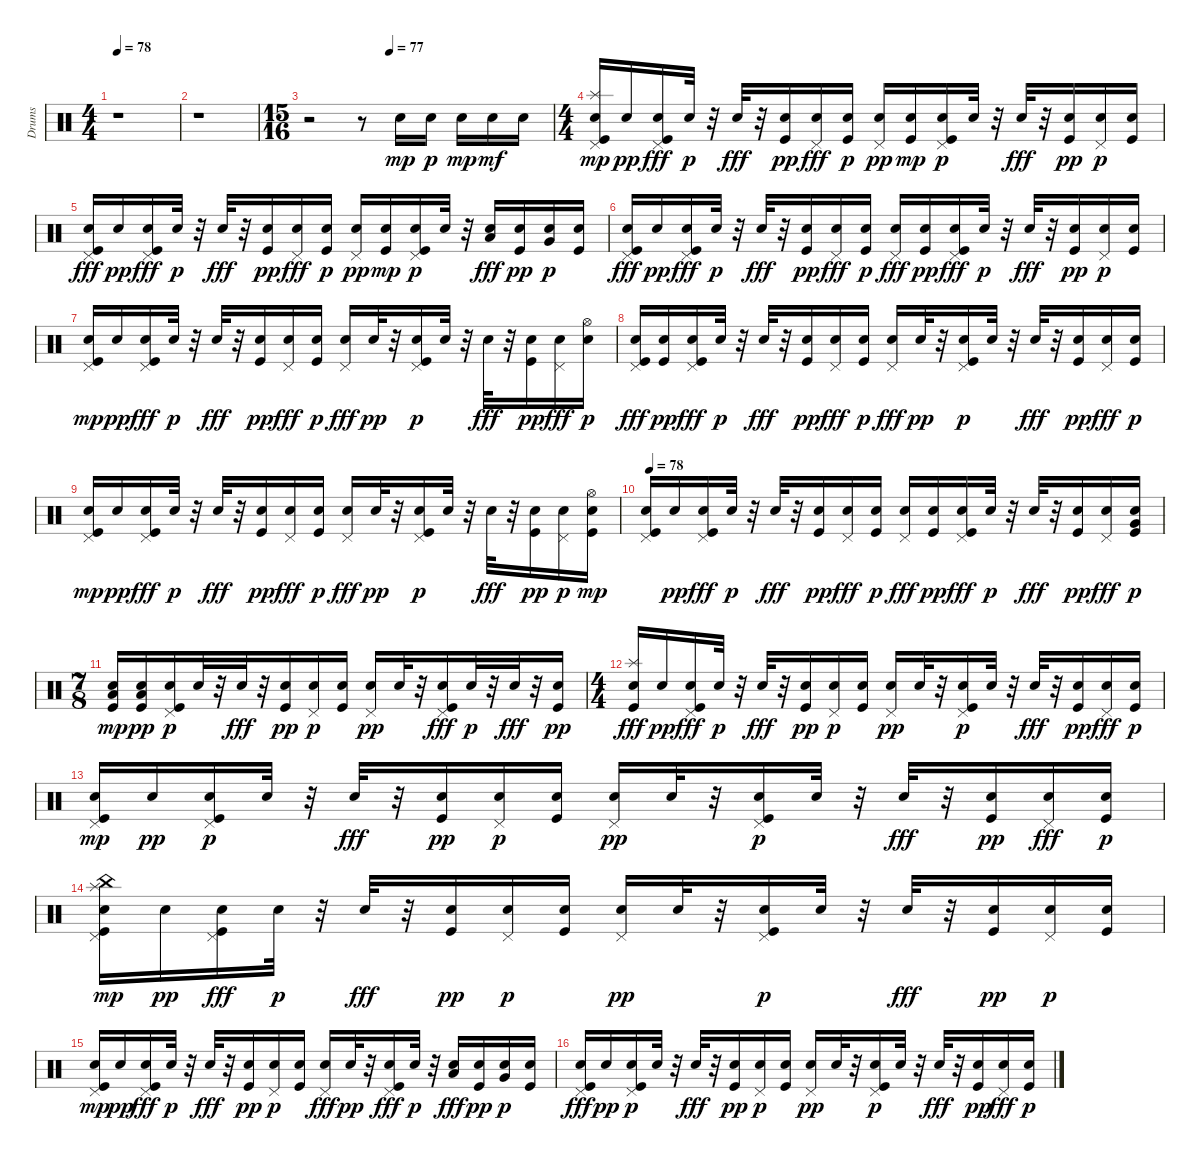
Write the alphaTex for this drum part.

\track ("Drums" "Drums") {instrument percussion}
\staff {score}
\articulation defaults
\ts (4 4)
\tempo 78
\clef neutral
\ks c
r.1{dy mp} |
r.1 |
\ts (15 16)
\tempo (77 0.3333333333333333)
r.2 r.8 "Snare (hit) 2".16 "Snare (hit) 2".16{dy p} "Snare (hit) 2".16{dy mp} "Snare (hit) 2".16{dy mf} "Snare (hit) 2".16 |
\ts (4 4)
("Splash (hit)" "Pedal Hi-Hat (hit)" "Kick (hit)" "Snare (hit) 2").16{dy mp} "Snare (hit) 2".16{dy pp} ("Snare (hit) 2" "Pedal Hi-Hat (hit)" "Kick (hit)").16{dy fff} "Snare (hit) 2".32{dy p} r.32 "Snare (hit) 2".32{dy fff} r.32 ("Snare (hit) 2" "Kick (hit)").16{dy pp} ("Snare (hit) 2" "Pedal Hi-Hat (hit)").16{dy fff} ("Kick (hit)" "Snare (hit) 2").16{dy p} ("Pedal Hi-Hat (hit)" "Snare (hit) 2").16{dy pp} ("Snare (hit) 2" "Kick (hit)").16{dy mp} ("Pedal Hi-Hat (hit)" "Snare (hit) 2" "Kick (hit)").16{dy p} "Snare (hit) 2".32 r.32 "Snare (hit) 2".32{dy fff} r.32 ("Snare (hit) 2" "Kick (hit)").16{dy pp} ("Pedal Hi-Hat (hit)" "Snare (hit) 2").16{dy p} ("Kick (hit)" "Snare (hit) 2").16 |
("Snare (hit) 2" "Pedal Hi-Hat (hit)" "Kick (hit)").16{dy fff} "Snare (hit) 2".16{dy pp} ("Snare (hit) 2" "Pedal Hi-Hat (hit)" "Kick (hit)").16{dy fff} "Snare (hit) 2".32{dy p} r.32 "Snare (hit) 2".32{dy fff} r.32 ("Kick (hit)" "Snare (hit) 2").16{dy pp} ("Snare (hit) 2" "Pedal Hi-Hat (hit)").16{dy fff} ("Snare (hit) 2" "Kick (hit)").16{dy p} ("Pedal Hi-Hat (hit)" "Snare (hit) 2").16{dy pp} ("Snare (hit) 2" "Kick (hit)").16{dy mp} ("Pedal Hi-Hat (hit)" "Snare (hit) 2" "Kick (hit)").16{dy p} "Snare (hit) 2".32 r.32 ("Low Tom (hit)" "Snare (hit) 2").16{dy fff} ("Snare (hit) 2" "Kick (hit)").16{dy pp} ("Very Low Tom (hit)" "Snare (hit) 2").16{dy p} ("Kick (hit)" "Snare (hit) 2").16 |
("Snare (hit) 2" "Kick (hit)" "Pedal Hi-Hat (hit)").16{dy fff} "Snare (hit) 2".16{dy pp} ("Snare (hit) 2" "Pedal Hi-Hat (hit)" "Kick (hit)").16{dy fff} "Snare (hit) 2".32{dy p} r.32 "Snare (hit) 2".32{dy fff} r.32 ("Kick (hit)" "Snare (hit) 2").16{dy pp} ("Snare (hit) 2" "Pedal Hi-Hat (hit)").16{dy fff} ("Kick (hit)" "Snare (hit) 2").16{dy p} ("Snare (hit) 2" "Pedal Hi-Hat (hit)").16{dy fff} ("Kick (hit)" "Snare (hit) 2").16{dy pp} ("Kick (hit)" "Snare (hit) 2" "Pedal Hi-Hat (hit)").16{dy fff} "Snare (hit) 2".32{dy p} r.32 "Snare (hit) 2".32{dy fff} r.32 ("Kick (hit)" "Snare (hit) 2").16{dy pp} ("Pedal Hi-Hat (hit)" "Snare (hit) 2").16{dy p} ("Snare (hit) 2" "Kick (hit)").16 |
("Kick (hit)" "Pedal Hi-Hat (hit)" "Snare (hit) 2").16{dy mp} "Snare (hit) 2".16{dy pp} ("Kick (hit)" "Snare (hit) 2" "Pedal Hi-Hat (hit)").16{dy fff} "Snare (hit) 2".32{dy p} r.32 "Snare (hit) 2".32{dy fff} r.32 ("Snare (hit) 2" "Kick (hit)").16{dy pp} ("Snare (hit) 2" "Pedal Hi-Hat (hit)").16{dy fff} ("Snare (hit) 2" "Kick (hit)").16{dy p} ("Snare (hit) 2" "Pedal Hi-Hat (hit)").16{dy fff} "Snare (hit) 2".32{dy pp} r.32 ("Pedal Hi-Hat (hit)" "Snare (hit) 2" "Kick (hit)").16{dy p} "Snare (hit) 2".32 r.32 "Snare (hit) 2".32{dy fff} r.32 ("Snare (hit) 2" "Kick (hit)").16{dy pp} ("Snare (hit) 2" "Pedal Hi-Hat (hit)").16{dy fff} ("Hi-Hat (open)" "Snare (hit) 2").16{dy p} |
("Snare (hit) 2" "Pedal Hi-Hat (hit)" "Kick (hit)").16{dy fff} ("Snare (hit) 2" "Kick (hit)").16{dy pp} ("Snare (hit) 2" "Pedal Hi-Hat (hit)" "Kick (hit)").16{dy fff} "Snare (hit) 2".32{dy p} r.32 "Snare (hit) 2".32{dy fff} r.32 ("Kick (hit)" "Snare (hit) 2").16{dy pp} ("Snare (hit) 2" "Pedal Hi-Hat (hit)").16{dy fff} ("Snare (hit) 2" "Kick (hit)").16{dy p} ("Snare (hit) 2" "Pedal Hi-Hat (hit)").16{dy fff} "Snare (hit) 2".32{dy pp} r.32 ("Kick (hit)" "Pedal Hi-Hat (hit)" "Snare (hit) 2").16{dy p} "Snare (hit) 2".32 r.32 "Snare (hit) 2".32{dy fff} r.32 ("Kick (hit)" "Snare (hit) 2").16{dy pp} ("Snare (hit) 2" "Pedal Hi-Hat (hit)").16{dy fff} ("Snare (hit) 2" "Kick (hit)").16{dy p} |
("Kick (hit)" "Pedal Hi-Hat (hit)" "Snare (hit) 2").16{dy mp} "Snare (hit) 2".16{dy pp} ("Kick (hit)" "Snare (hit) 2" "Pedal Hi-Hat (hit)").16{dy fff} "Snare (hit) 2".32{dy p} r.32 "Snare (hit) 2".32{dy fff} r.32 ("Kick (hit)" "Snare (hit) 2").16{dy pp} ("Snare (hit) 2" "Pedal Hi-Hat (hit)").16{dy fff} ("Snare (hit) 2" "Kick (hit)").16{dy p} ("Snare (hit) 2" "Pedal Hi-Hat (hit)").16{dy fff} "Snare (hit) 2".32{dy pp} r.32 ("Pedal Hi-Hat (hit)" "Kick (hit)" "Snare (hit) 2").16{dy p} "Snare (hit) 2".32 r.32 "Snare (hit) 2".32{dy fff} r.32 ("Snare (hit) 2" "Kick (hit)").16{dy pp} ("Pedal Hi-Hat (hit)" "Snare (hit) 2").16{dy p} ("Snare (hit) 2" "Kick (hit)" "Hi-Hat (open)").16{dy mp} |
\tempo 78
("Kick (hit)" "Pedal Hi-Hat (hit)" "Snare (hit) 2").16 "Snare (hit) 2".16{dy pp} ("Snare (hit) 2" "Pedal Hi-Hat (hit)" "Kick (hit)").16{dy fff} "Snare (hit) 2".32{dy p} r.32 "Snare (hit) 2".32{dy fff} r.32 ("Kick (hit)" "Snare (hit) 2").16{dy pp} ("Snare (hit) 2" "Pedal Hi-Hat (hit)").16{dy fff} ("Kick (hit)" "Snare (hit) 2").16{dy p} ("Snare (hit) 2" "Pedal Hi-Hat (hit)").16{dy fff} ("Kick (hit)" "Snare (hit) 2").16{dy pp} ("Snare (hit) 2" "Kick (hit)" "Pedal Hi-Hat (hit)").16{dy fff} "Snare (hit) 2".32{dy p} r.32 "Snare (hit) 2".32{dy fff} r.32 ("Kick (hit)" "Snare (hit) 2").16{dy pp} ("Snare (hit) 2" "Pedal Hi-Hat (hit)").16{dy fff} ("Very Low Tom (hit)" "Kick (hit)" "Snare (hit) 2").16{dy p} |
\ts (7 8)
("Low Floor Tom (hit)" "Kick (hit)" "Snare (hit) 2").16{dy mp} ("Kick (hit)" "Low Floor Tom (hit)" "Snare (hit) 2").16{dy pp} ("Kick (hit)" "Pedal Hi-Hat (hit)" "Snare (hit) 2").16{dy p} "Snare (hit) 2".32 r.32 "Snare (hit) 2".32{dy fff} r.32 ("Snare (hit) 2" "Kick (hit)").16{dy pp} ("Pedal Hi-Hat (hit)" "Snare (hit) 2").16{dy p} ("Snare (hit) 2" "Kick (hit)").16 ("Pedal Hi-Hat (hit)" "Snare (hit) 2").16{dy pp} "Snare (hit) 2".32 r.32 ("Snare (hit) 2" "Kick (hit)" "Pedal Hi-Hat (hit)").16{dy fff} "Snare (hit) 2".32{dy p} r.32 "Snare (hit) 2".32{dy fff} r.32 ("Kick (hit)" "Snare (hit) 2").16{dy pp} |
\ts (4 4)
("Snare (hit) 2" "Splash (hit)" "Kick (hit)").16{dy fff} "Snare (hit) 2".16{dy pp} ("Snare (hit) 2" "Kick (hit)" "Pedal Hi-Hat (hit)").16{dy fff} "Snare (hit) 2".32{dy p} r.32 "Snare (hit) 2".32{dy fff} r.32 ("Snare (hit) 2" "Kick (hit)").16{dy pp} ("Pedal Hi-Hat (hit)" "Snare (hit) 2").16{dy p} ("Snare (hit) 2" "Kick (hit)").16 ("Pedal Hi-Hat (hit)" "Snare (hit) 2").16{dy pp} "Snare (hit) 2".32 r.32 ("Kick (hit)" "Pedal Hi-Hat (hit)" "Snare (hit) 2").16{dy p} "Snare (hit) 2".32 r.32 "Snare (hit) 2".32{dy fff} r.32 ("Kick (hit)" "Snare (hit) 2").16{dy pp} ("Snare (hit) 2" "Pedal Hi-Hat (hit)").16{dy fff} ("Kick (hit)" "Snare (hit) 2").16{dy p} |
("Kick (hit)" "Pedal Hi-Hat (hit)" "Snare (hit) 2").16{dy mp} "Snare (hit) 2".16{dy pp} ("Pedal Hi-Hat (hit)" "Kick (hit)" "Snare (hit) 2").16{dy p} "Snare (hit) 2".32 r.32 "Snare (hit) 2".32{dy fff} r.32 ("Snare (hit) 2" "Kick (hit)").16{dy pp} ("Pedal Hi-Hat (hit)" "Snare (hit) 2").16{dy p} ("Snare (hit) 2" "Kick (hit)").16 ("Pedal Hi-Hat (hit)" "Snare (hit) 2").16{dy pp} "Snare (hit) 2".32 r.32 ("Pedal Hi-Hat (hit)" "Kick (hit)" "Snare (hit) 2").16{dy p} "Snare (hit) 2".32 r.32 "Snare (hit) 2".32{dy fff} r.32 ("Snare (hit) 2" "Kick (hit)").16{dy pp} ("Snare (hit) 2" "Pedal Hi-Hat (hit)").16{dy fff} ("Kick (hit)" "Snare (hit) 2").16{dy p} |
("Splash (hit)" "China (hit)" "Kick (hit)" "Pedal Hi-Hat (hit)" "Snare (hit) 2").16{dy mp} "Snare (hit) 2".16{dy pp} ("Snare (hit) 2" "Kick (hit)" "Pedal Hi-Hat (hit)").16{dy fff} "Snare (hit) 2".32{dy p} r.32 "Snare (hit) 2".32{dy fff} r.32 ("Kick (hit)" "Snare (hit) 2").16{dy pp} ("Pedal Hi-Hat (hit)" "Snare (hit) 2").16{dy p} ("Kick (hit)" "Snare (hit) 2").16 ("Pedal Hi-Hat (hit)" "Snare (hit) 2").16{dy pp} "Snare (hit) 2".32 r.32 ("Kick (hit)" "Pedal Hi-Hat (hit)" "Snare (hit) 2").16{dy p} "Snare (hit) 2".32 r.32 "Snare (hit) 2".32{dy fff} r.32 ("Kick (hit)" "Snare (hit) 2").16{dy pp} ("Pedal Hi-Hat (hit)" "Snare (hit) 2").16{dy p} ("Snare (hit) 2" "Kick (hit)").16 |
("Kick (hit)" "Pedal Hi-Hat (hit)" "Snare (hit) 2").16{dy mp} "Snare (hit) 2".16{dy pp} ("Snare (hit) 2" "Kick (hit)" "Pedal Hi-Hat (hit)").16{dy fff} "Snare (hit) 2".32{dy p} r.32 "Snare (hit) 2".32{dy fff} r.32 ("Snare (hit) 2" "Kick (hit)").16{dy pp} ("Pedal Hi-Hat (hit)" "Snare (hit) 2").16{dy p} ("Snare (hit) 2" "Kick (hit)").16 ("Snare (hit) 2" "Pedal Hi-Hat (hit)").16{dy fff} "Snare (hit) 2".32{dy pp} r.32 ("Snare (hit) 2" "Pedal Hi-Hat (hit)" "Kick (hit)").16{dy fff} "Snare (hit) 2".32{dy p} r.32 ("Low Tom (hit)" "Snare (hit) 2").16{dy fff} ("Kick (hit)" "Snare (hit) 2").16{dy pp} ("Very Low Tom (hit)" "Snare (hit) 2").16{dy p} ("Snare (hit) 2" "Kick (hit)").16 |
("Snare (hit) 2" "Pedal Hi-Hat (hit)" "Kick (hit)").16{dy fff} "Snare (hit) 2".16{dy pp} ("Kick (hit)" "Pedal Hi-Hat (hit)" "Snare (hit) 2").16{dy p} "Snare (hit) 2".32 r.32 "Snare (hit) 2".32{dy fff} r.32 ("Snare (hit) 2" "Kick (hit)").16{dy pp} ("Pedal Hi-Hat (hit)" "Snare (hit) 2").16{dy p} ("Snare (hit) 2" "Kick (hit)").16 ("Pedal Hi-Hat (hit)" "Snare (hit) 2").16{dy pp} "Snare (hit) 2".32 r.32 ("Kick (hit)" "Pedal Hi-Hat (hit)" "Snare (hit) 2").16{dy p} "Snare (hit) 2".32 r.32 "Snare (hit) 2".32{dy fff} r.32 ("Snare (hit) 2" "Kick (hit)").16{dy pp} ("Snare (hit) 2" "Pedal Hi-Hat (hit)").16{dy fff} ("Snare (hit) 2" "Kick (hit)").16{dy p}
